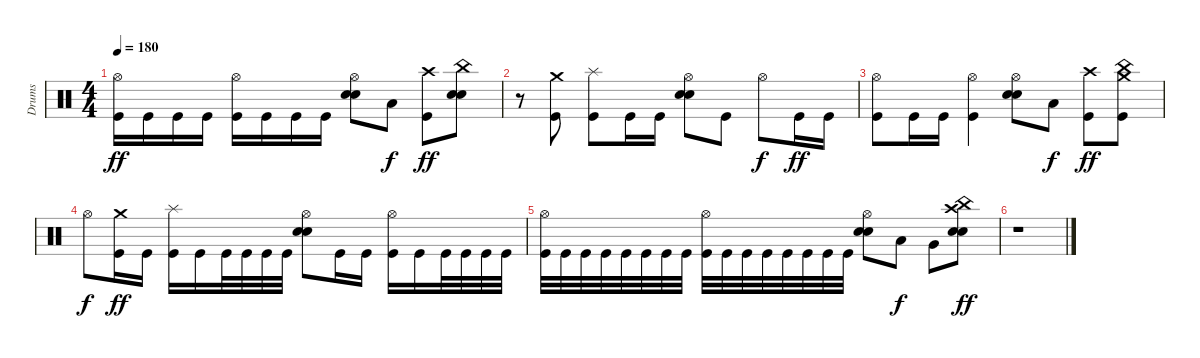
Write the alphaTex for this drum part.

\track ("Drums" "Drums") {instrument percussion}
\staff {score}
\articulation defaults
\ts (4 4)
\tempo 180
\clef neutral
\ks c
("Kick (hit)" "Hi-Hat (open)").16{dy ff} "Kick (hit)".16 "Kick (hit)".16 "Kick (hit)".16 ("Kick (hit)" "Hi-Hat (open)").16 "Kick (hit)".16 "Kick (hit)".16 "Kick (hit)".16 ("Electric Snare (hit)" "Electric Snare (hit)" "Hi-Hat (open)").8 "Low Tom (hit)".8{dy f} ("Kick (hit)" "Crash high (hit)").8{dy ff} ("Electric Snare (hit)" "Electric Snare (hit)" "China (hit)").8 |
r.8{volume 2} ("Kick (hit)" "Crash medium (hit)").8{volume 14} ("Kick (hit)" "Splash (hit)").8 "Kick (hit)".16 "Kick (hit)".16 ("Electric Snare (hit)" "Electric Snare (hit)" "Hi-Hat (open)").8 "Kick (hit)".8 "Hi-Hat (open)".8{dy f} "Kick (hit)".16{dy ff} "Kick (hit)".16 |
("Kick (hit)" "Hi-Hat (open)").8 "Kick (hit)".16 "Kick (hit)".16 ("Kick (hit)" "Hi-Hat (open)").4 ("Electric Snare (hit)" "Electric Snare (hit)" "Hi-Hat (open)").8 "Low Tom (hit)".8{dy f} ("Kick (hit)" "Crash high (hit)").8{dy ff} ("Kick (hit)" "China (hit)" "Crash medium (hit)").8 |
"Hi-Hat (open)".8{dy f} ("Kick (hit)" "Crash medium (hit)").16{dy ff} "Kick (hit)".16 ("Kick (hit)" "Splash (hit)").16 "Kick (hit)".16 "Kick (hit)".32 "Kick (hit)".32 "Kick (hit)".32 "Kick (hit)".32 ("Electric Snare (hit)" "Electric Snare (hit)" "Hi-Hat (open)").8 "Kick (hit)".16 "Kick (hit)".16 ("Kick (hit)" "Hi-Hat (open)").16 "Kick (hit)".16 "Kick (hit)".32 "Kick (hit)".32 "Kick (hit)".32 "Kick (hit)".32 |
("Kick (hit)" "Hi-Hat (open)").32 "Kick (hit)".32 "Kick (hit)".32 "Kick (hit)".32 "Kick (hit)".32 "Kick (hit)".32 "Kick (hit)".32 "Kick (hit)".32 ("Kick (hit)" "Hi-Hat (open)").32 "Kick (hit)".32 "Kick (hit)".32 "Kick (hit)".32 "Kick (hit)".32 "Kick (hit)".32 "Kick (hit)".32 "Kick (hit)".32 ("Electric Snare (hit)" "Electric Snare (hit)" "Hi-Hat (open)").8 "Low Tom (hit)".8{dy f} "Very Low Tom (hit)".8 ("Electric Snare (hit)" "Electric Snare (hit)" "China (hit)" "Crash high (hit)").8{dy ff} |
r.1{volume 0}
